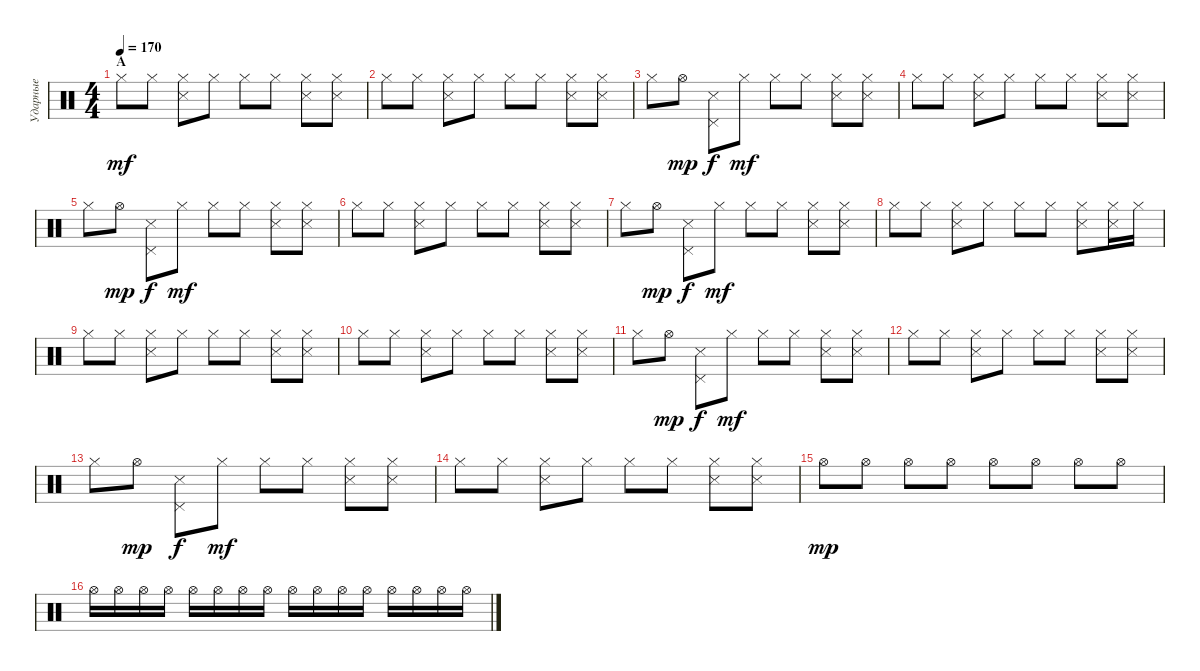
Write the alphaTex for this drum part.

\track ("Ударные" "Ударные") {instrument percussion}
\staff {score}
\articulation defaults
\ts (4 4)
\section ("" "A")
\tempo 170
\clef neutral
\ks c "Hi-Hat (closed)".8{dy mf} "Hi-Hat (closed)".8
("Hi-Hat (closed)" "Snare (side stick) 3").8 "Hi-Hat (closed)".8 "Hi-Hat (closed)".8 "Hi-Hat (closed)".8 ("Hi-Hat (closed)" "Snare (side stick) 3").8 ("Hi-Hat (closed)" "Snare (side stick) 3").8 |
"Hi-Hat (closed)".8 "Hi-Hat (closed)".8 ("Hi-Hat (closed)" "Snare (side stick) 3").8 "Hi-Hat (closed)".8 "Hi-Hat (closed)".8 "Hi-Hat (closed)".8 ("Hi-Hat (closed)" "Snare (side stick) 3").8 ("Hi-Hat (closed)" "Snare (side stick) 3").8 |
"Hi-Hat (closed)".8 "Hi-Hat (open)".8{dy mp} ("Pedal Hi-Hat (hit)" "Snare (side stick) 3").8{dy f} "Hi-Hat (closed)".8{dy mf} "Hi-Hat (closed)".8 "Hi-Hat (closed)".8 ("Hi-Hat (closed)" "Snare (side stick) 3").8 ("Hi-Hat (closed)" "Snare (side stick) 3").8 |
"Hi-Hat (closed)".8 "Hi-Hat (closed)".8 ("Hi-Hat (closed)" "Snare (side stick) 3").8 "Hi-Hat (closed)".8 "Hi-Hat (closed)".8 "Hi-Hat (closed)".8 ("Hi-Hat (closed)" "Snare (side stick) 3").8 ("Hi-Hat (closed)" "Snare (side stick) 3").8 |
"Hi-Hat (closed)".8 "Hi-Hat (open)".8{dy mp} ("Pedal Hi-Hat (hit)" "Snare (side stick) 3").8{dy f} "Hi-Hat (closed)".8{dy mf} "Hi-Hat (closed)".8 "Hi-Hat (closed)".8 ("Hi-Hat (closed)" "Snare (side stick) 3").8 ("Hi-Hat (closed)" "Snare (side stick) 3").8 |
"Hi-Hat (closed)".8 "Hi-Hat (closed)".8 ("Hi-Hat (closed)" "Snare (side stick) 3").8 "Hi-Hat (closed)".8 "Hi-Hat (closed)".8 "Hi-Hat (closed)".8 ("Hi-Hat (closed)" "Snare (side stick) 3").8 ("Hi-Hat (closed)" "Snare (side stick) 3").8 |
"Hi-Hat (closed)".8 "Hi-Hat (open)".8{dy mp} ("Pedal Hi-Hat (hit)" "Snare (side stick) 3").8{dy f} "Hi-Hat (closed)".8{dy mf} "Hi-Hat (closed)".8 "Hi-Hat (closed)".8 ("Hi-Hat (closed)" "Snare (side stick) 3").8 ("Hi-Hat (closed)" "Snare (side stick) 3").8 |
"Hi-Hat (closed)".8 "Hi-Hat (closed)".8 ("Hi-Hat (closed)" "Snare (side stick) 3").8 "Hi-Hat (closed)".8 "Hi-Hat (closed)".8 "Hi-Hat (closed)".8 ("Hi-Hat (closed)" "Snare (side stick) 3").8 ("Hi-Hat (closed)" "Snare (side stick) 3").16 "Hi-Hat (closed)".16 |
"Hi-Hat (closed)".8 "Hi-Hat (closed)".8 ("Hi-Hat (closed)" "Snare (side stick) 3").8 "Hi-Hat (closed)".8 "Hi-Hat (closed)".8 "Hi-Hat (closed)".8 ("Hi-Hat (closed)" "Snare (side stick) 3").8 ("Hi-Hat (closed)" "Snare (side stick) 3").8 |
"Hi-Hat (closed)".8 "Hi-Hat (closed)".8 ("Hi-Hat (closed)" "Snare (side stick) 3").8 "Hi-Hat (closed)".8 "Hi-Hat (closed)".8 "Hi-Hat (closed)".8 ("Hi-Hat (closed)" "Snare (side stick) 3").8 ("Hi-Hat (closed)" "Snare (side stick) 3").8 |
"Hi-Hat (closed)".8 "Hi-Hat (open)".8{dy mp} ("Pedal Hi-Hat (hit)" "Snare (side stick) 3").8{dy f} "Hi-Hat (closed)".8{dy mf} "Hi-Hat (closed)".8 "Hi-Hat (closed)".8 ("Hi-Hat (closed)" "Snare (side stick) 3").8 ("Hi-Hat (closed)" "Snare (side stick) 3").8 |
"Hi-Hat (closed)".8 "Hi-Hat (closed)".8 ("Hi-Hat (closed)" "Snare (side stick) 3").8 "Hi-Hat (closed)".8 "Hi-Hat (closed)".8 "Hi-Hat (closed)".8 ("Hi-Hat (closed)" "Snare (side stick) 3").8 ("Hi-Hat (closed)" "Snare (side stick) 3").8 |
"Hi-Hat (closed)".8 "Hi-Hat (open)".8{dy mp} ("Pedal Hi-Hat (hit)" "Snare (side stick) 3").8{dy f} "Hi-Hat (closed)".8{dy mf} "Hi-Hat (closed)".8 "Hi-Hat (closed)".8 ("Hi-Hat (closed)" "Snare (side stick) 3").8 ("Hi-Hat (closed)" "Snare (side stick) 3").8 |
"Hi-Hat (closed)".8 "Hi-Hat (closed)".8 ("Hi-Hat (closed)" "Snare (side stick) 3").8 "Hi-Hat (closed)".8 "Hi-Hat (closed)".8 "Hi-Hat (closed)".8 ("Hi-Hat (closed)" "Snare (side stick) 3").8 ("Hi-Hat (closed)" "Snare (side stick) 3").8 |
"Hi-Hat (open)".8{dy mp} "Hi-Hat (open)".8 "Hi-Hat (open)".8 "Hi-Hat (open)".8 "Hi-Hat (open)".8 "Hi-Hat (open)".8 "Hi-Hat (open)".8 "Hi-Hat (open)".8 |
"Hi-Hat (open)".16 "Hi-Hat (open)".16 "Hi-Hat (open)".16 "Hi-Hat (open)".16 "Hi-Hat (open)".16 "Hi-Hat (open)".16 "Hi-Hat (open)".16 "Hi-Hat (open)".16 "Hi-Hat (open)".16 "Hi-Hat (open)".16 "Hi-Hat (open)".16 "Hi-Hat (open)".16 "Hi-Hat (open)".16 "Hi-Hat (open)".16 "Hi-Hat (open)".16 "Hi-Hat (open)".16
